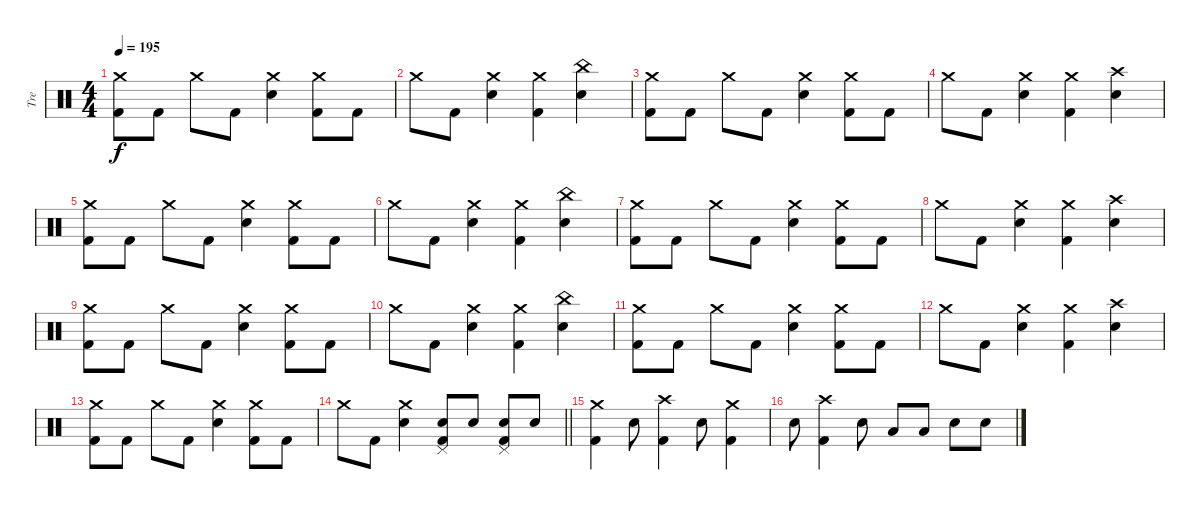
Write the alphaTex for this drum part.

\track ("Tre" "Tre") {instrument percussion}
\staff {score}
\articulation defaults
\ts (4 4)
\tempo 195
\clef neutral
\ks c
("Crash medium (hit)" "Kick (hit) 2").8{dy f} "Kick (hit) 2".8 "Crash medium (hit)".8 "Kick (hit) 2".8 ("Crash medium (hit)" "Snare (hit) 2").4 ("Crash medium (hit)" "Kick (hit) 2").8 "Kick (hit) 2".8 |
"Crash medium (hit)".8 "Kick (hit) 2".8 ("Crash medium (hit)" "Snare (hit) 2").4 ("Crash medium (hit)" "Kick (hit) 2").4 ("China (hit)" "Snare (hit) 2").4 |
("Crash medium (hit)" "Kick (hit) 2").8 "Kick (hit) 2".8 "Crash medium (hit)".8 "Kick (hit) 2".8 ("Crash medium (hit)" "Snare (hit) 2").4 ("Crash medium (hit)" "Kick (hit) 2").8 "Kick (hit) 2".8 |
"Crash medium (hit)".8 "Kick (hit) 2".8 ("Crash medium (hit)" "Snare (hit) 2").4 ("Crash medium (hit)" "Kick (hit) 2").4 ("Crash high (hit)" "Snare (hit) 2").4 |
("Crash medium (hit)" "Kick (hit) 2").8 "Kick (hit) 2".8 "Crash medium (hit)".8 "Kick (hit) 2".8 ("Crash medium (hit)" "Snare (hit) 2").4 ("Crash medium (hit)" "Kick (hit) 2").8 "Kick (hit) 2".8 |
"Crash medium (hit)".8 "Kick (hit) 2".8 ("Crash medium (hit)" "Snare (hit) 2").4 ("Crash medium (hit)" "Kick (hit) 2").4 ("China (hit)" "Snare (hit) 2").4 |
("Crash medium (hit)" "Kick (hit) 2").8 "Kick (hit) 2".8 "Crash medium (hit)".8 "Kick (hit) 2".8 ("Crash medium (hit)" "Snare (hit) 2").4 ("Crash medium (hit)" "Kick (hit) 2").8 "Kick (hit) 2".8 |
"Crash medium (hit)".8 "Kick (hit) 2".8 ("Crash medium (hit)" "Snare (hit) 2").4 ("Crash medium (hit)" "Kick (hit) 2").4 ("Crash high (hit)" "Snare (hit) 2").4 |
("Crash medium (hit)" "Kick (hit) 2").8 "Kick (hit) 2".8 "Crash medium (hit)".8 "Kick (hit) 2".8 ("Crash medium (hit)" "Snare (hit) 2").4 ("Crash medium (hit)" "Kick (hit) 2").8 "Kick (hit) 2".8 |
"Crash medium (hit)".8 "Kick (hit) 2".8 ("Crash medium (hit)" "Snare (hit) 2").4 ("Crash medium (hit)" "Kick (hit) 2").4 ("China (hit)" "Snare (hit) 2").4 |
("Crash medium (hit)" "Kick (hit) 2").8 "Kick (hit) 2".8 "Crash medium (hit)".8 "Kick (hit) 2".8 ("Crash medium (hit)" "Snare (hit) 2").4 ("Crash medium (hit)" "Kick (hit) 2").8 "Kick (hit) 2".8 |
"Crash medium (hit)".8 "Kick (hit) 2".8 ("Crash medium (hit)" "Snare (hit) 2").4 ("Crash medium (hit)" "Kick (hit) 2").4 ("Crash high (hit)" "Snare (hit) 2").4 |
("Crash medium (hit)" "Kick (hit) 2").8 "Kick (hit) 2".8 "Crash medium (hit)".8 "Kick (hit) 2".8 ("Crash medium (hit)" "Snare (hit) 2").4 ("Crash medium (hit)" "Kick (hit) 2").8 "Kick (hit) 2".8 |
\barLineRight lightlight "Crash medium (hit)".8 "Kick (hit) 2".8
("Crash medium (hit)" "Snare (hit) 2").4 ("Snare (hit) 2" "Pedal Hi-Hat (hit)" "Kick (hit) 2").8 "Snare (hit) 2".8 ("Snare (hit) 2" "Pedal Hi-Hat (hit)" "Kick (hit) 2").8 "Snare (hit) 2".8 |
("Crash medium (hit)" "Kick (hit) 2").4 "Snare (hit) 2".8 ("Crash high (hit)" "Kick (hit) 2").4 "Snare (hit) 2".8 ("Crash medium (hit)" "Kick (hit) 2").4 |
"Snare (hit) 2".8 ("Crash high (hit)" "Kick (hit) 2").4 "Snare (hit) 2".8 "Low Tom (hit)".8 "Low Tom (hit)".8 "Snare (hit) 2".8 "Snare (hit) 2".8
